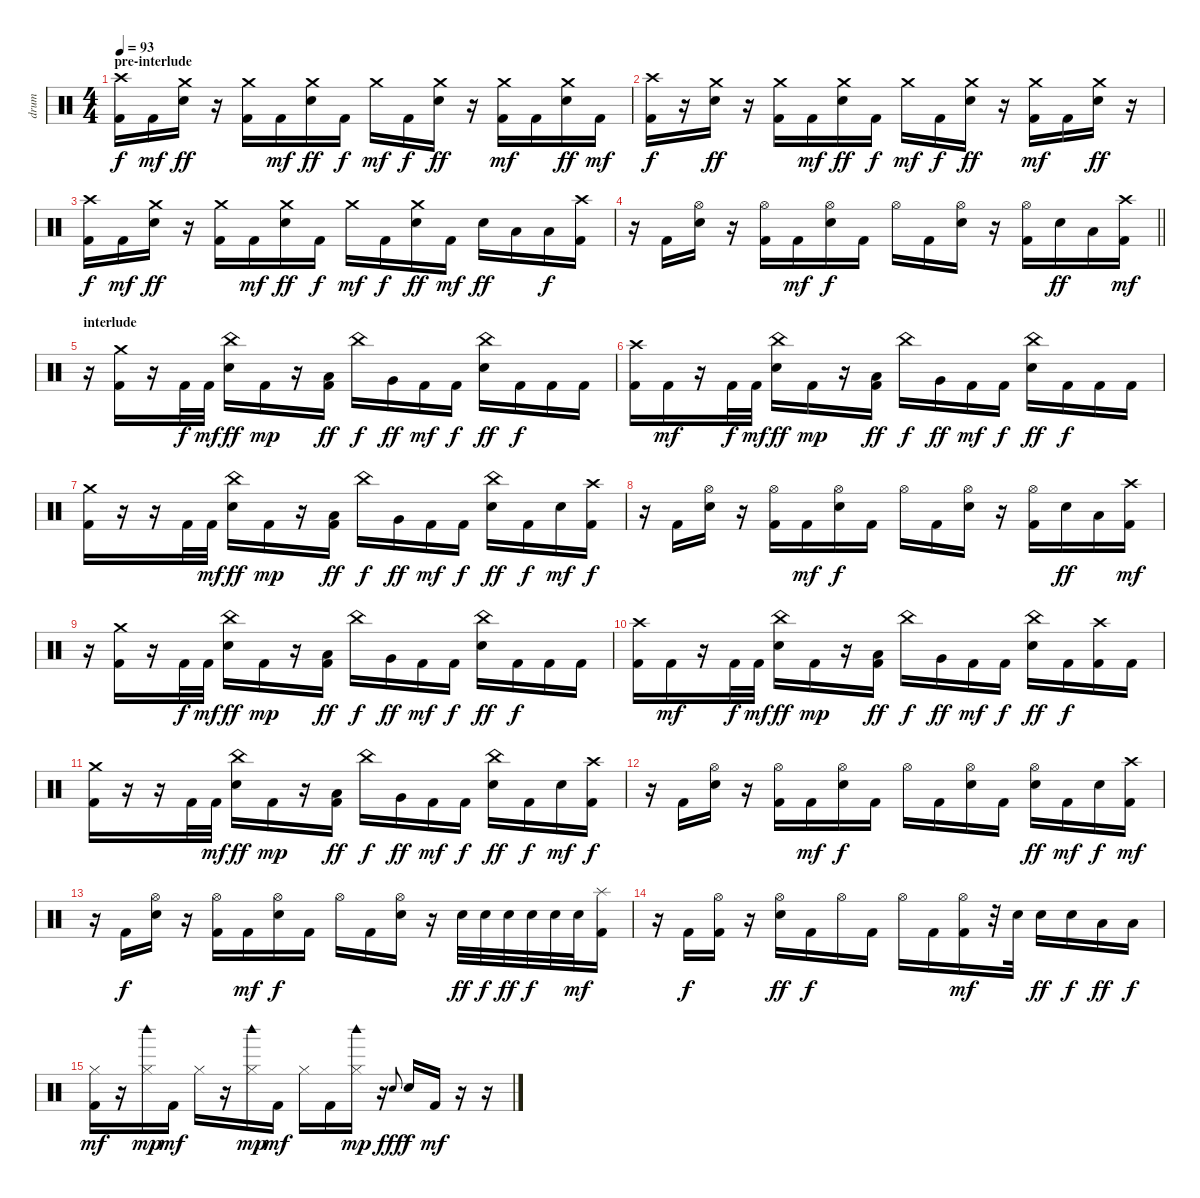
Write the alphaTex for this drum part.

\track ("drum" "drum") {instrument percussion}
\staff {score}
\articulation defaults
\ts (4 4)
\section ("" "pre-interlude")
\tempo 93
\clef neutral
\ks c
("Crash high (hit)" "Kick (hit) 2").16{dy f} "Kick (hit) 2".16{dy mf} ("Crash medium (hit)" "Electric Snare (hit)").16{dy ff} r.16 ("Crash medium (hit)" "Kick (hit) 2").16 "Kick (hit) 2".16{dy mf} ("Crash medium (hit)" "Electric Snare (hit)").16{dy ff} "Kick (hit) 2".16{dy f} "Crash medium (hit)".16{dy mf} "Kick (hit) 2".16{dy f} ("Crash medium (hit)" "Electric Snare (hit)").16{dy ff} r.16 ("Crash medium (hit)" "Kick (hit) 2").16{dy mf} "Kick (hit) 2".16 ("Crash medium (hit)" "Electric Snare (hit)").16{dy ff} "Kick (hit) 2".16{dy mf} |
("Crash high (hit)" "Kick (hit) 2").16{dy f} r.16 ("Crash medium (hit)" "Electric Snare (hit)").16{dy ff} r.16 ("Crash medium (hit)" "Kick (hit) 2").16 "Kick (hit) 2".16{dy mf} ("Crash medium (hit)" "Electric Snare (hit)").16{dy ff} "Kick (hit) 2".16{dy f} "Crash medium (hit)".16{dy mf} "Kick (hit) 2".16{dy f} ("Crash medium (hit)" "Electric Snare (hit)").16{dy ff} r.16 ("Crash medium (hit)" "Kick (hit) 2").16{dy mf} "Kick (hit) 2".16 ("Crash medium (hit)" "Electric Snare (hit)").16{dy ff} r.16 |
("Crash high (hit)" "Kick (hit) 2").16{dy f} "Kick (hit) 2".16{dy mf} ("Crash medium (hit)" "Electric Snare (hit)").16{dy ff} r.16 ("Crash medium (hit)" "Kick (hit) 2").16 "Kick (hit) 2".16{dy mf} ("Crash medium (hit)" "Electric Snare (hit)").16{dy ff} "Kick (hit) 2".16{dy f} "Crash medium (hit)".16{dy mf} "Kick (hit) 2".16{dy f} ("Crash medium (hit)" "Electric Snare (hit)").16{dy ff} "Kick (hit) 2".16{dy mf} "Electric Snare (hit)".16{dy ff} "Low Tom (hit)".16 "Low Tom (hit)".16{dy f} ("Crash high (hit)" "Kick (hit) 2").16 |
\barLineRight lightlight
r.16 "Kick (hit) 2".16 ("Hi-Hat (open)" "Electric Snare (hit)").16 r.16 ("Hi-Hat (open)" "Kick (hit) 2").16 "Kick (hit) 2".16{dy mf} ("Hi-Hat (open)" "Electric Snare (hit)").16{dy f} "Kick (hit) 2".16 "Hi-Hat (open)".16 "Kick (hit) 2".16 ("Hi-Hat (open)" "Electric Snare (hit)").16 r.16 ("Hi-Hat (open)" "Kick (hit) 2").16 "Electric Snare (hit)".16{dy ff} "Low Tom (hit)".16 ("Crash high (hit)" "Kick (hit) 2").16{dy mf} |
\section ("" "interlude")
r.16 ("Crash medium (hit)" "Kick (hit) 2").16 r.16 "Kick (hit) 2".32{dy f} "Kick (hit) 2".32{dy mf} ("China (hit)" "Electric Snare (hit)").16{dy ff} "Kick (hit) 2".16{dy mp} r.16 ("Low Tom (hit)" "Kick (hit) 2").16{dy ff} "China (hit)".16{dy f} "Very Low Tom (hit)".16{dy ff} "Kick (hit) 2".16{dy mf} "Kick (hit) 2".16{dy f} ("China (hit)" "Electric Snare (hit)").16{dy ff} "Kick (hit) 2".16{dy f} "Kick (hit) 2".16 "Kick (hit) 2".16 |
("Crash high (hit)" "Kick (hit) 2").16 "Kick (hit) 2".16{dy mf} r.16 "Kick (hit) 2".32{dy f} "Kick (hit) 2".32{dy mf} ("China (hit)" "Electric Snare (hit)").16{dy ff} "Kick (hit) 2".16{dy mp} r.16 ("Low Tom (hit)" "Kick (hit) 2").16{dy ff} "China (hit)".16{dy f} "Very Low Tom (hit)".16{dy ff} "Kick (hit) 2".16{dy mf} "Kick (hit) 2".16{dy f} ("China (hit)" "Electric Snare (hit)").16{dy ff} "Kick (hit) 2".16{dy f} "Kick (hit) 2".16 "Kick (hit) 2".16 |
("Crash medium (hit)" "Kick (hit) 2").16 r.16 r.16 "Kick (hit) 2".32 "Kick (hit) 2".32{dy mf} ("China (hit)" "Electric Snare (hit)").16{dy ff} "Kick (hit) 2".16{dy mp} r.16 ("Low Tom (hit)" "Kick (hit) 2").16{dy ff} "China (hit)".16{dy f} "Very Low Tom (hit)".16{dy ff} "Kick (hit) 2".16{dy mf} "Kick (hit) 2".16{dy f} ("China (hit)" "Electric Snare (hit)").16{dy ff} "Kick (hit) 2".16{dy f} "Electric Snare (hit)".16{dy mf} ("Crash high (hit)" "Kick (hit) 2").16{dy f} |
r.16 "Kick (hit) 2".16 ("Hi-Hat (open)" "Electric Snare (hit)").16 r.16 ("Hi-Hat (open)" "Kick (hit) 2").16 "Kick (hit) 2".16{dy mf} ("Hi-Hat (open)" "Electric Snare (hit)").16{dy f} "Kick (hit) 2".16 "Hi-Hat (open)".16 "Kick (hit) 2".16 ("Hi-Hat (open)" "Electric Snare (hit)").16 r.16 ("Hi-Hat (open)" "Kick (hit) 2").16 "Electric Snare (hit)".16{dy ff} "Low Tom (hit)".16 ("Crash high (hit)" "Kick (hit) 2").16{dy mf} |
r.16 ("Crash medium (hit)" "Kick (hit) 2").16 r.16 "Kick (hit) 2".32{dy f} "Kick (hit) 2".32{dy mf} ("China (hit)" "Electric Snare (hit)").16{dy ff} "Kick (hit) 2".16{dy mp} r.16 ("Low Tom (hit)" "Kick (hit) 2").16{dy ff} "China (hit)".16{dy f} "Very Low Tom (hit)".16{dy ff} "Kick (hit) 2".16{dy mf} "Kick (hit) 2".16{dy f} ("China (hit)" "Electric Snare (hit)").16{dy ff} "Kick (hit) 2".16{dy f} "Kick (hit) 2".16 "Kick (hit) 2".16 |
("Crash high (hit)" "Kick (hit) 2").16 "Kick (hit) 2".16{dy mf} r.16 "Kick (hit) 2".32{dy f} "Kick (hit) 2".32{dy mf} ("China (hit)" "Electric Snare (hit)").16{dy ff} "Kick (hit) 2".16{dy mp} r.16 ("Low Tom (hit)" "Kick (hit) 2").16{dy ff} "China (hit)".16{dy f} "Very Low Tom (hit)".16{dy ff} "Kick (hit) 2".16{dy mf} "Kick (hit) 2".16{dy f} ("China (hit)" "Electric Snare (hit)").16{dy ff} "Kick (hit) 2".16{dy f} ("Crash high (hit)" "Kick (hit) 2").16 "Kick (hit) 2".16 |
("Crash medium (hit)" "Kick (hit) 2").16 r.16 r.16 "Kick (hit) 2".32 "Kick (hit) 2".32{dy mf} ("China (hit)" "Electric Snare (hit)").16{dy ff} "Kick (hit) 2".16{dy mp} r.16 ("Low Tom (hit)" "Kick (hit) 2").16{dy ff} "China (hit)".16{dy f} "Very Low Tom (hit)".16{dy ff} "Kick (hit) 2".16{dy mf} "Kick (hit) 2".16{dy f} ("China (hit)" "Electric Snare (hit)").16{dy ff} "Kick (hit) 2".16{dy f} "Electric Snare (hit)".16{dy mf} ("Crash high (hit)" "Kick (hit) 2").16{dy f} |
r.16 "Kick (hit) 2".16 ("Hi-Hat (open)" "Electric Snare (hit)").16 r.16 ("Hi-Hat (open)" "Kick (hit) 2").16 "Kick (hit) 2".16{dy mf} ("Hi-Hat (open)" "Electric Snare (hit)").16{dy f} "Kick (hit) 2".16 "Hi-Hat (open)".16 "Kick (hit) 2".16 ("Hi-Hat (open)" "Electric Snare (hit)").16 "Kick (hit) 2".16 ("Hi-Hat (open)" "Electric Snare (hit)").16{dy ff} "Kick (hit) 2".16{dy mf} "Electric Snare (hit)".16{dy f} ("Crash high (hit)" "Kick (hit) 2").16{dy mf} |
r.16 "Kick (hit) 2".16{dy f} ("Hi-Hat (open)" "Electric Snare (hit)").16 r.16 ("Hi-Hat (open)" "Kick (hit) 2").16 "Kick (hit) 2".16{dy mf} ("Hi-Hat (open)" "Electric Snare (hit)").16{dy f} "Kick (hit) 2".16 "Hi-Hat (open)".16 "Kick (hit) 2".16 ("Hi-Hat (open)" "Electric Snare (hit)").16 r.16 "Electric Snare (hit)".32{dy ff} "Electric Snare (hit)".32{dy f} "Electric Snare (hit)".32{dy ff} "Electric Snare (hit)".32{dy f} "Electric Snare (hit)".32 "Electric Snare (hit)".32{dy mf} ("Splash (hit)" "Kick (hit) 2").16 |
r.16 "Kick (hit) 2".16{dy f} ("Hi-Hat (open)" "Kick (hit) 2").16 r.16 ("Hi-Hat (open)" "Electric Snare (hit)").16{dy ff} "Kick (hit) 2".16{dy f} "Hi-Hat (open)".16 "Kick (hit) 2".16 "Hi-Hat (open)".16 "Kick (hit) 2".16 ("Hi-Hat (open)" "Kick (hit) 2").16{dy mf} r.32 "Electric Snare (hit)".32 "Electric Snare (hit)".16{dy ff} "Electric Snare (hit)".16{dy f} "Low Tom (hit)".16{dy ff} "Low Tom (hit)".16{dy f} |
("Hi-Hat (closed)" "Kick (hit) 2").16{dy mf} r.16 ("Hi-Hat (closed)" "Woodblock high (hit)").16{dy mp} "Kick (hit) 2".16{dy mf} "Hi-Hat (closed)".16 r.16 ("Hi-Hat (closed)" "Woodblock high (hit)").16{dy mp} "Kick (hit) 2".16{dy mf} "Hi-Hat (closed)".16 "Kick (hit) 2".16 ("Hi-Hat (closed)" "Woodblock high (hit)").16{dy mp} r.16 "Electric Snare (hit)".8{gr onbeat dy fff} "Electric Snare (hit)".16{dy f} "Kick (hit) 2".16{dy mf} r.16 r.16
